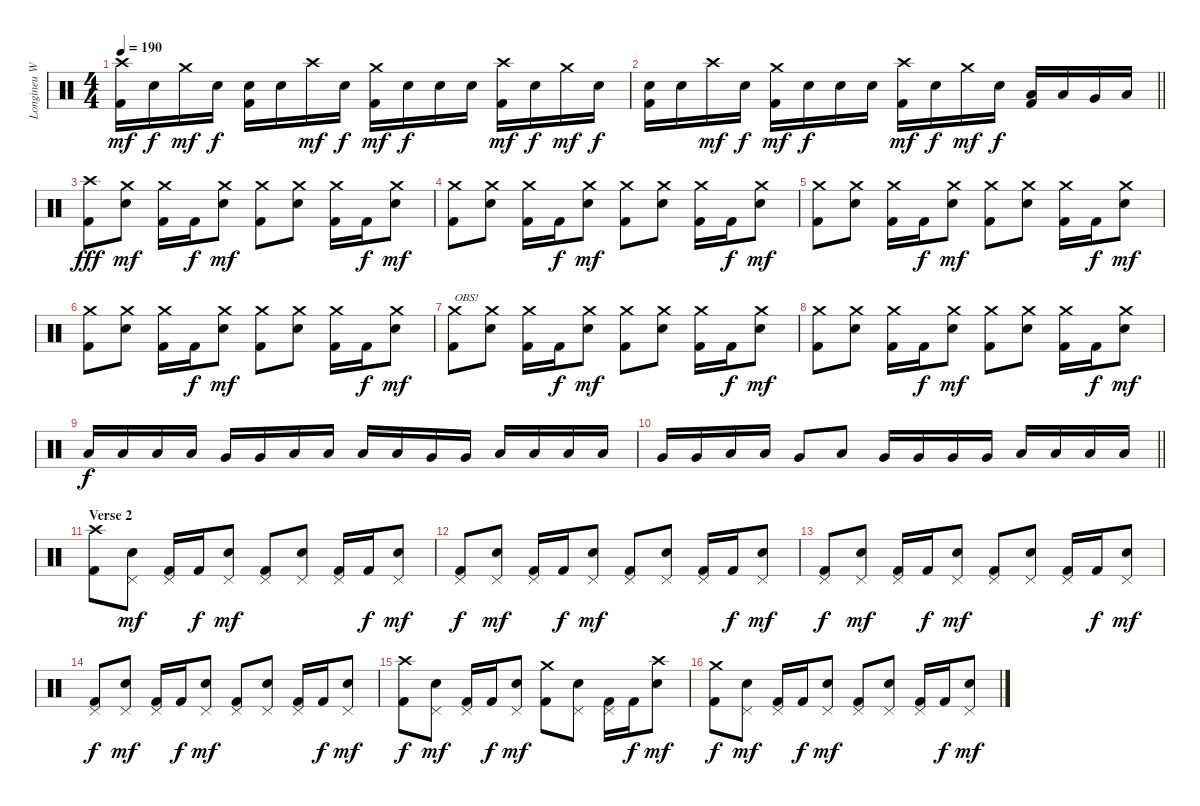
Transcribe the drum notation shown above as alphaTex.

\track ("Longineu W. Parsons III" "Longineu W") {instrument percussion}
\staff {score}
\articulation defaults
\ts (4 4)
\tempo 190
\clef neutral
\ks c
("Crash high (hit)" "Kick (hit) 2").16{dy mf} "Electric Snare (hit)".16{dy f} "Crash medium (hit)".16{dy mf} "Electric Snare (hit)".16{dy f} ("Electric Snare (hit)" "Kick (hit) 2").16 "Electric Snare (hit)".16 "Crash high (hit)".16{dy mf} "Electric Snare (hit)".16{dy f} ("Crash medium (hit)" "Kick (hit) 2").16{dy mf} "Electric Snare (hit)".16{dy f} "Electric Snare (hit)".16 "Electric Snare (hit)".16 ("Crash high (hit)" "Kick (hit) 2").16{dy mf} "Electric Snare (hit)".16{dy f} "Crash medium (hit)".16{dy mf} "Electric Snare (hit)".16{dy f} |
\barLineRight lightlight
("Electric Snare (hit)" "Kick (hit) 2").16 "Electric Snare (hit)".16 "Crash high (hit)".16{dy mf} "Electric Snare (hit)".16{dy f} ("Crash medium (hit)" "Kick (hit) 2").16{dy mf} "Electric Snare (hit)".16{dy f} "Electric Snare (hit)".16 "Electric Snare (hit)".16 ("Crash high (hit)" "Kick (hit) 2").16{dy mf} "Electric Snare (hit)".16{dy f} "Crash medium (hit)".16{dy mf} "Electric Snare (hit)".16{dy f} ("Low Tom (hit)" "Kick (hit) 2").16 "Low Tom (hit)".16 "Very Low Tom (hit)".16 "Low Floor Tom (hit)".16 |
("Crash high (hit)" "Kick (hit) 2").8{dy fff} ("Crash medium (hit)" "Electric Snare (hit)").8{dy mf} ("Crash medium (hit)" "Kick (hit) 2").16 "Kick (hit) 2".16{dy f} ("Crash medium (hit)" "Electric Snare (hit)").8{dy mf} ("Crash medium (hit)" "Kick (hit) 2").8 ("Crash medium (hit)" "Electric Snare (hit)").8 ("Crash medium (hit)" "Kick (hit) 2").16 "Kick (hit) 2".16{dy f} ("Crash medium (hit)" "Electric Snare (hit)").8{dy mf} |
("Crash medium (hit)" "Kick (hit) 2").8 ("Crash medium (hit)" "Electric Snare (hit)").8 ("Crash medium (hit)" "Kick (hit) 2").16 "Kick (hit) 2".16{dy f} ("Crash medium (hit)" "Electric Snare (hit)").8{dy mf} ("Crash medium (hit)" "Kick (hit) 2").8 ("Crash medium (hit)" "Electric Snare (hit)").8 ("Crash medium (hit)" "Kick (hit) 2").16 "Kick (hit) 2".16{dy f} ("Crash medium (hit)" "Electric Snare (hit)").8{dy mf} |
("Crash medium (hit)" "Kick (hit) 2").8 ("Crash medium (hit)" "Electric Snare (hit)").8 ("Crash medium (hit)" "Kick (hit) 2").16 "Kick (hit) 2".16{dy f} ("Crash medium (hit)" "Electric Snare (hit)").8{dy mf} ("Crash medium (hit)" "Kick (hit) 2").8 ("Crash medium (hit)" "Electric Snare (hit)").8 ("Crash medium (hit)" "Kick (hit) 2").16 "Kick (hit) 2".16{dy f} ("Crash medium (hit)" "Electric Snare (hit)").8{dy mf} |
("Crash medium (hit)" "Kick (hit) 2").8 ("Crash medium (hit)" "Electric Snare (hit)").8 ("Crash medium (hit)" "Kick (hit) 2").16 "Kick (hit) 2".16{dy f} ("Crash medium (hit)" "Electric Snare (hit)").8{dy mf} ("Crash medium (hit)" "Kick (hit) 2").8 ("Crash medium (hit)" "Electric Snare (hit)").8 ("Crash medium (hit)" "Kick (hit) 2").16 "Kick (hit) 2".16{dy f} ("Crash medium (hit)" "Electric Snare (hit)").8{dy mf} |
("Crash medium (hit)" "Kick (hit) 2").8{txt "OBS!"} ("Crash medium (hit)" "Electric Snare (hit)").8 ("Crash medium (hit)" "Kick (hit) 2").16 "Kick (hit) 2".16{dy f} ("Crash medium (hit)" "Electric Snare (hit)").8{dy mf} ("Crash medium (hit)" "Kick (hit) 2").8 ("Crash medium (hit)" "Electric Snare (hit)").8 ("Crash medium (hit)" "Kick (hit) 2").16 "Kick (hit) 2".16{dy f} ("Crash medium (hit)" "Electric Snare (hit)").8{dy mf} |
("Crash medium (hit)" "Kick (hit) 2").8 ("Crash medium (hit)" "Electric Snare (hit)").8 ("Crash medium (hit)" "Kick (hit) 2").16 "Kick (hit) 2".16{dy f} ("Crash medium (hit)" "Electric Snare (hit)").8{dy mf} ("Crash medium (hit)" "Kick (hit) 2").8 ("Crash medium (hit)" "Electric Snare (hit)").8 ("Crash medium (hit)" "Kick (hit) 2").16 "Kick (hit) 2".16{dy f} ("Crash medium (hit)" "Electric Snare (hit)").8{dy mf} |
"Low Tom (hit)".16{dy f} "Low Tom (hit)".16 "Low Tom (hit)".16 "Low Tom (hit)".16 "Very Low Tom (hit)".16 "Very Low Tom (hit)".16 "Low Tom (hit)".16 "Low Tom (hit)".16 "Low Tom (hit)".16 "Low Tom (hit)".16 "Very Low Tom (hit)".16 "Very Low Tom (hit)".16 "Low Tom (hit)".16 "Low Tom (hit)".16 "Low Tom (hit)".16 "Low Tom (hit)".16 |
\barLineRight lightlight "Very Low Tom (hit)".16 "Very Low Tom (hit)".16 "Low Tom (hit)".16 "Low Tom (hit)".16 "Very Low Tom (hit)".8 "Low Tom (hit)".8 "Very Low Tom (hit)".16 "Very Low Tom (hit)".16 "Very Low Tom (hit)".16 "Very Low Tom (hit)".16 "Low Tom (hit)".16 "Low Tom (hit)".16 "Low Tom (hit)".16 "Low Tom (hit)".16
|
\section ("" "Verse 2")
("Crash high (hit)" "Kick (hit) 2").8 ("Pedal Hi-Hat (hit)" "Electric Snare (hit)").8{dy mf} ("Pedal Hi-Hat (hit)" "Kick (hit) 2").16 "Kick (hit) 2".16{dy f} ("Pedal Hi-Hat (hit)" "Electric Snare (hit)").8{dy mf} ("Pedal Hi-Hat (hit)" "Kick (hit) 2").8 ("Pedal Hi-Hat (hit)" "Electric Snare (hit)").8 ("Pedal Hi-Hat (hit)" "Kick (hit) 2").16 "Kick (hit) 2".16{dy f} ("Pedal Hi-Hat (hit)" "Electric Snare (hit)").8{dy mf} |
("Pedal Hi-Hat (hit)" "Kick (hit) 2").8{dy f} ("Pedal Hi-Hat (hit)" "Electric Snare (hit)").8{dy mf} ("Pedal Hi-Hat (hit)" "Kick (hit) 2").16 "Kick (hit) 2".16{dy f} ("Pedal Hi-Hat (hit)" "Electric Snare (hit)").8{dy mf} ("Pedal Hi-Hat (hit)" "Kick (hit) 2").8 ("Pedal Hi-Hat (hit)" "Electric Snare (hit)").8 ("Pedal Hi-Hat (hit)" "Kick (hit) 2").16 "Kick (hit) 2".16{dy f} ("Pedal Hi-Hat (hit)" "Electric Snare (hit)").8{dy mf} |
("Pedal Hi-Hat (hit)" "Kick (hit) 2").8{dy f} ("Pedal Hi-Hat (hit)" "Electric Snare (hit)").8{dy mf} ("Pedal Hi-Hat (hit)" "Kick (hit) 2").16 "Kick (hit) 2".16{dy f} ("Pedal Hi-Hat (hit)" "Electric Snare (hit)").8{dy mf} ("Pedal Hi-Hat (hit)" "Kick (hit) 2").8 ("Pedal Hi-Hat (hit)" "Electric Snare (hit)").8 ("Pedal Hi-Hat (hit)" "Kick (hit) 2").16 "Kick (hit) 2".16{dy f} ("Pedal Hi-Hat (hit)" "Electric Snare (hit)").8{dy mf} |
("Pedal Hi-Hat (hit)" "Kick (hit) 2").8{dy f} ("Pedal Hi-Hat (hit)" "Electric Snare (hit)").8{dy mf} ("Pedal Hi-Hat (hit)" "Kick (hit) 2").16 "Kick (hit) 2".16{dy f} ("Pedal Hi-Hat (hit)" "Electric Snare (hit)").8{dy mf} ("Pedal Hi-Hat (hit)" "Kick (hit) 2").8 ("Pedal Hi-Hat (hit)" "Electric Snare (hit)").8 ("Pedal Hi-Hat (hit)" "Kick (hit) 2").16 "Kick (hit) 2".16{dy f} ("Pedal Hi-Hat (hit)" "Electric Snare (hit)").8{dy mf} |
("Crash high (hit)" "Kick (hit) 2").8{dy f} ("Pedal Hi-Hat (hit)" "Electric Snare (hit)").8{dy mf} ("Pedal Hi-Hat (hit)" "Kick (hit) 2").16 "Kick (hit) 2".16{dy f} ("Pedal Hi-Hat (hit)" "Electric Snare (hit)").8{dy mf} ("Crash medium (hit)" "Kick (hit) 2").8 ("Pedal Hi-Hat (hit)" "Electric Snare (hit)").8 ("Pedal Hi-Hat (hit)" "Kick (hit) 2").16 "Kick (hit) 2".16{dy f} ("Crash high (hit)" "Electric Snare (hit)").8{dy mf} |
("Crash medium (hit)" "Kick (hit) 2").8{dy f} ("Pedal Hi-Hat (hit)" "Electric Snare (hit)").8{dy mf} ("Pedal Hi-Hat (hit)" "Kick (hit) 2").16 "Kick (hit) 2".16{dy f} ("Pedal Hi-Hat (hit)" "Electric Snare (hit)").8{dy mf} ("Pedal Hi-Hat (hit)" "Kick (hit) 2").8 ("Pedal Hi-Hat (hit)" "Electric Snare (hit)").8 ("Pedal Hi-Hat (hit)" "Kick (hit) 2").16 "Kick (hit) 2".16{dy f} ("Pedal Hi-Hat (hit)" "Electric Snare (hit)").8{dy mf}
